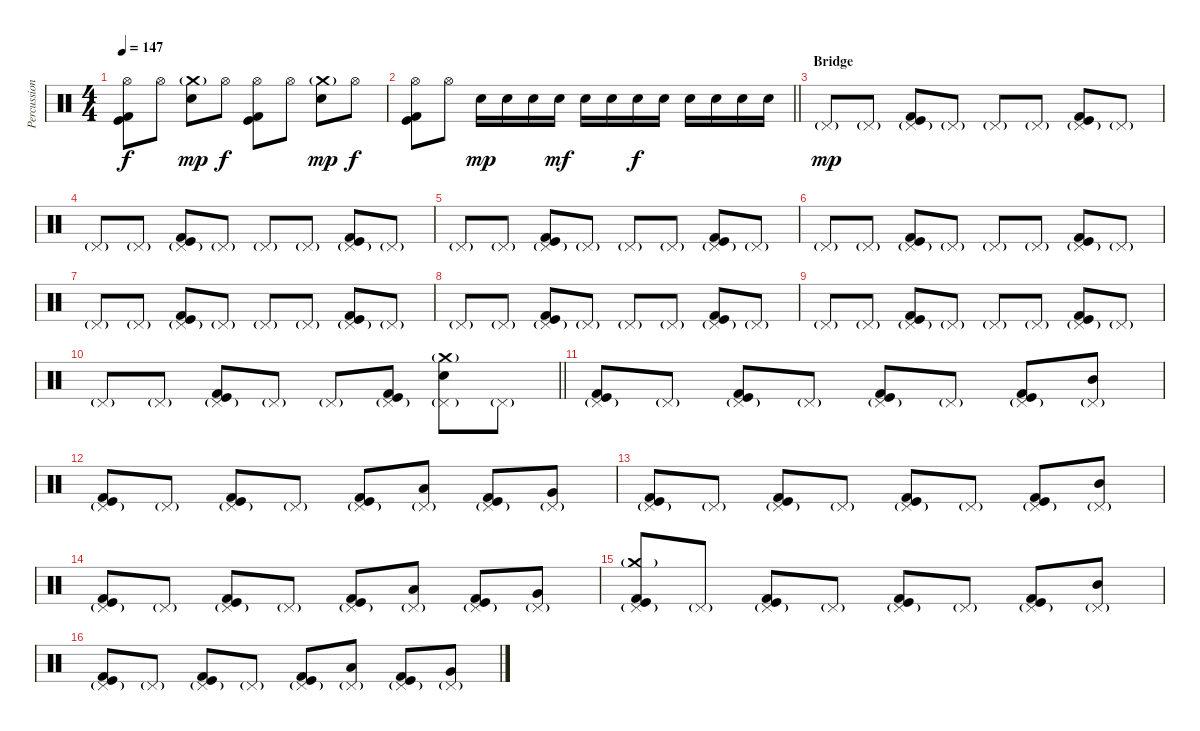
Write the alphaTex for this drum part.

\track ("Percussion" "Percussion") {instrument percussion}
\staff {score}
\articulation defaults
\ts (4 4)
\tempo 147
\clef neutral
\ks c
("Hi-Hat (open)" "Kick (hit)" "Kick (hit) 2").8{dy f} "Hi-Hat (open)".8 ("Crash medium (hit)"{g} "Electric Snare (hit)").8{dy mp} "Hi-Hat (open)".8{dy f} ("Hi-Hat (open)" "Kick (hit)" "Kick (hit) 2").8 "Hi-Hat (open)".8 ("Crash medium (hit)"{g} "Electric Snare (hit)").8{dy mp} "Hi-Hat (open)".8{dy f} |
\barLineRight lightlight
("Hi-Hat (open)" "Kick (hit)" "Kick (hit) 2").8 "Hi-Hat (open)".8 "Electric Snare (hit)".16{dy mp} "Electric Snare (hit)".16 "Electric Snare (hit)".16 "Electric Snare (hit)".16{dy mf} "Electric Snare (hit)".16 "Electric Snare (hit)".16 "Electric Snare (hit)".16{dy f} "Electric Snare (hit)".16 "Electric Snare (hit)".16 "Electric Snare (hit)".16 "Electric Snare (hit)".16 "Electric Snare (hit)".16 |
\section ("" "Bridge")
"Pedal Hi-Hat (hit)"{g}.8{dy mp} "Pedal Hi-Hat (hit)"{g}.8 ("Pedal Hi-Hat (hit)"{g} "Kick (hit)" "Kick (hit) 2").8 "Pedal Hi-Hat (hit)"{g}.8 "Pedal Hi-Hat (hit)"{g}.8 "Pedal Hi-Hat (hit)"{g}.8 ("Pedal Hi-Hat (hit)"{g} "Kick (hit)" "Kick (hit) 2").8 "Pedal Hi-Hat (hit)"{g}.8 |
"Pedal Hi-Hat (hit)"{g}.8 "Pedal Hi-Hat (hit)"{g}.8 ("Pedal Hi-Hat (hit)"{g} "Kick (hit)" "Kick (hit) 2").8 "Pedal Hi-Hat (hit)"{g}.8 "Pedal Hi-Hat (hit)"{g}.8 "Pedal Hi-Hat (hit)"{g}.8 ("Pedal Hi-Hat (hit)"{g} "Kick (hit)" "Kick (hit) 2").8 "Pedal Hi-Hat (hit)"{g}.8 |
"Pedal Hi-Hat (hit)"{g}.8 "Pedal Hi-Hat (hit)"{g}.8 ("Pedal Hi-Hat (hit)"{g} "Kick (hit)" "Kick (hit) 2").8 "Pedal Hi-Hat (hit)"{g}.8 "Pedal Hi-Hat (hit)"{g}.8 "Pedal Hi-Hat (hit)"{g}.8 ("Pedal Hi-Hat (hit)"{g} "Kick (hit)" "Kick (hit) 2").8 "Pedal Hi-Hat (hit)"{g}.8 |
"Pedal Hi-Hat (hit)"{g}.8 "Pedal Hi-Hat (hit)"{g}.8 ("Pedal Hi-Hat (hit)"{g} "Kick (hit)" "Kick (hit) 2").8 "Pedal Hi-Hat (hit)"{g}.8 "Pedal Hi-Hat (hit)"{g}.8 "Pedal Hi-Hat (hit)"{g}.8 ("Pedal Hi-Hat (hit)"{g} "Kick (hit)" "Kick (hit) 2").8 "Pedal Hi-Hat (hit)"{g}.8 |
"Pedal Hi-Hat (hit)"{g}.8 "Pedal Hi-Hat (hit)"{g}.8 ("Pedal Hi-Hat (hit)"{g} "Kick (hit)" "Kick (hit) 2").8 "Pedal Hi-Hat (hit)"{g}.8 "Pedal Hi-Hat (hit)"{g}.8 "Pedal Hi-Hat (hit)"{g}.8 ("Pedal Hi-Hat (hit)"{g} "Kick (hit)" "Kick (hit) 2").8 "Pedal Hi-Hat (hit)"{g}.8 |
"Pedal Hi-Hat (hit)"{g}.8 "Pedal Hi-Hat (hit)"{g}.8 ("Pedal Hi-Hat (hit)"{g} "Kick (hit)" "Kick (hit) 2").8 "Pedal Hi-Hat (hit)"{g}.8 "Pedal Hi-Hat (hit)"{g}.8 "Pedal Hi-Hat (hit)"{g}.8 ("Pedal Hi-Hat (hit)"{g} "Kick (hit)" "Kick (hit) 2").8 "Pedal Hi-Hat (hit)"{g}.8 |
"Pedal Hi-Hat (hit)"{g}.8 "Pedal Hi-Hat (hit)"{g}.8 ("Pedal Hi-Hat (hit)"{g} "Kick (hit)" "Kick (hit) 2").8 "Pedal Hi-Hat (hit)"{g}.8 "Pedal Hi-Hat (hit)"{g}.8 "Pedal Hi-Hat (hit)"{g}.8 ("Pedal Hi-Hat (hit)"{g} "Kick (hit)" "Kick (hit) 2").8 "Pedal Hi-Hat (hit)"{g}.8 |
\barLineRight lightlight "Pedal Hi-Hat (hit)"{g}.8 "Pedal Hi-Hat (hit)"{g}.8
("Pedal Hi-Hat (hit)"{g} "Kick (hit)" "Kick (hit) 2").8 "Pedal Hi-Hat (hit)"{g}.8 "Pedal Hi-Hat (hit)"{g}.8 ("Pedal Hi-Hat (hit)"{g} "Kick (hit)" "Kick (hit) 2").8 ("Pedal Hi-Hat (hit)"{g} "Crash medium (hit)"{g} "Electric Snare (hit)").8 "Pedal Hi-Hat (hit)"{g}.8 |
("Pedal Hi-Hat (hit)"{g} "Kick (hit)" "Kick (hit) 2").8 "Pedal Hi-Hat (hit)"{g}.8 ("Pedal Hi-Hat (hit)"{g} "Kick (hit)" "Kick (hit) 2").8 "Pedal Hi-Hat (hit)"{g}.8 ("Pedal Hi-Hat (hit)"{g} "Kick (hit)" "Kick (hit) 2").8 "Pedal Hi-Hat (hit)"{g}.8 ("Pedal Hi-Hat (hit)"{g} "Kick (hit)" "Kick (hit) 2").8 ("Pedal Hi-Hat (hit)"{g} "Mid Tom (hit)").8 |
("Pedal Hi-Hat (hit)"{g} "Kick (hit)" "Kick (hit) 2").8 "Pedal Hi-Hat (hit)"{g}.8 ("Pedal Hi-Hat (hit)"{g} "Kick (hit)" "Kick (hit) 2").8 "Pedal Hi-Hat (hit)"{g}.8 ("Pedal Hi-Hat (hit)"{g} "Kick (hit)" "Kick (hit) 2").8 ("Pedal Hi-Hat (hit)"{g} "Low Tom (hit)").8 ("Pedal Hi-Hat (hit)"{g} "Kick (hit)" "Kick (hit) 2").8 ("Pedal Hi-Hat (hit)"{g} "Very Low Tom (hit)").8 |
("Pedal Hi-Hat (hit)"{g} "Kick (hit)" "Kick (hit) 2").8 "Pedal Hi-Hat (hit)"{g}.8 ("Pedal Hi-Hat (hit)"{g} "Kick (hit)" "Kick (hit) 2").8 "Pedal Hi-Hat (hit)"{g}.8 ("Pedal Hi-Hat (hit)"{g} "Kick (hit)" "Kick (hit) 2").8 "Pedal Hi-Hat (hit)"{g}.8 ("Pedal Hi-Hat (hit)"{g} "Kick (hit)" "Kick (hit) 2").8 ("Pedal Hi-Hat (hit)"{g} "Mid Tom (hit)").8 |
("Pedal Hi-Hat (hit)"{g} "Kick (hit)" "Kick (hit) 2").8 "Pedal Hi-Hat (hit)"{g}.8 ("Pedal Hi-Hat (hit)"{g} "Kick (hit)" "Kick (hit) 2").8 "Pedal Hi-Hat (hit)"{g}.8 ("Pedal Hi-Hat (hit)"{g} "Kick (hit)" "Kick (hit) 2").8 ("Pedal Hi-Hat (hit)"{g} "Low Tom (hit)").8 ("Pedal Hi-Hat (hit)"{g} "Kick (hit)" "Kick (hit) 2").8 ("Pedal Hi-Hat (hit)"{g} "Very Low Tom (hit)").8 |
("Pedal Hi-Hat (hit)"{g} "Crash medium (hit)"{g} "Kick (hit)" "Kick (hit) 2").8 "Pedal Hi-Hat (hit)"{g}.8 ("Pedal Hi-Hat (hit)"{g} "Kick (hit)" "Kick (hit) 2").8 "Pedal Hi-Hat (hit)"{g}.8 ("Pedal Hi-Hat (hit)"{g} "Kick (hit)" "Kick (hit) 2").8 "Pedal Hi-Hat (hit)"{g}.8 ("Pedal Hi-Hat (hit)"{g} "Kick (hit)" "Kick (hit) 2").8 ("Pedal Hi-Hat (hit)"{g} "Mid Tom (hit)").8 |
("Pedal Hi-Hat (hit)"{g} "Kick (hit)" "Kick (hit) 2").8 "Pedal Hi-Hat (hit)"{g}.8 ("Pedal Hi-Hat (hit)"{g} "Kick (hit)" "Kick (hit) 2").8 "Pedal Hi-Hat (hit)"{g}.8 ("Pedal Hi-Hat (hit)"{g} "Kick (hit)" "Kick (hit) 2").8 ("Pedal Hi-Hat (hit)"{g} "Low Tom (hit)").8 ("Pedal Hi-Hat (hit)"{g} "Kick (hit)" "Kick (hit) 2").8 ("Pedal Hi-Hat (hit)"{g} "Very Low Tom (hit)").8
